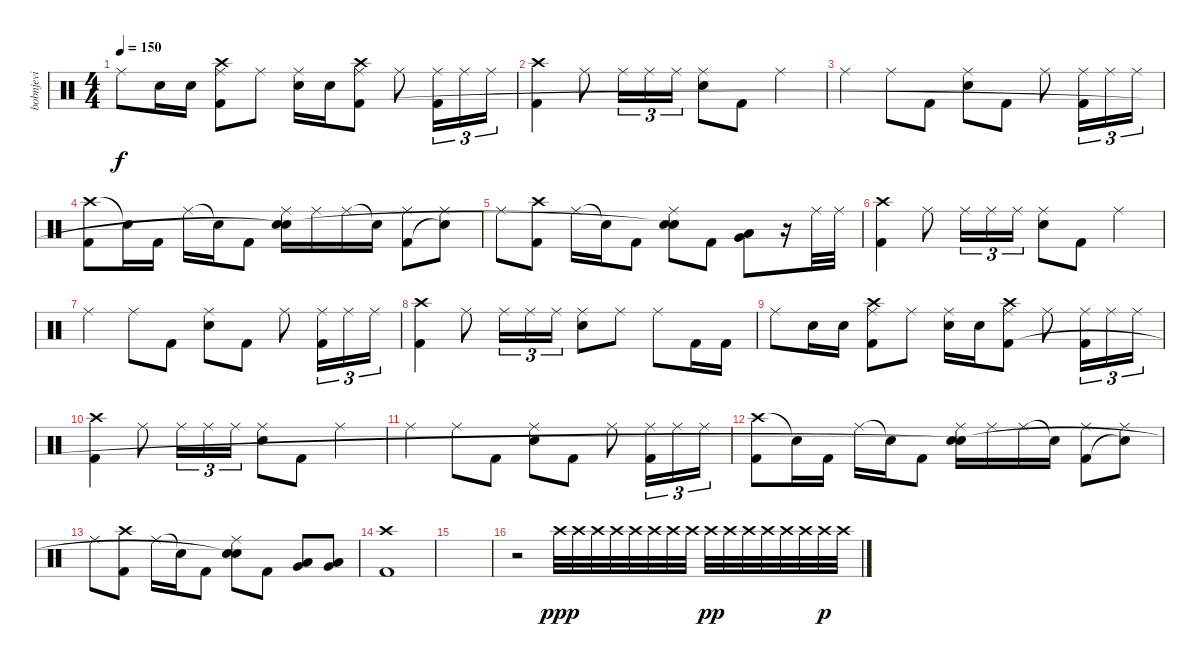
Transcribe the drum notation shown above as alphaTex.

\track ("bobnjevi" "bobnjevi") {instrument percussion}
\staff {score}
\articulation defaults
\ts (4 4)
\tempo 150
\clef neutral
\ks c "Ride (middle)".8{dy f} "Electric Snare (hit)".16 "Electric Snare (hit)".16
("Crash high (hit)" "Ride (middle)" "Kick (hit) 2").8 "Ride (middle)".8 ("Ride (middle)" "Electric Snare (hit)").16 "Electric Snare (hit)".16 ("Crash high (hit)" "Ride (middle)" "Kick (hit) 2").8 "Ride (middle)".8 ("Ride (middle)" "Kick (hit) 2").16{tu (3 2)} "Ride (middle)".16{tu (3 2)} "Ride (middle)".16{tu (3 2)} |
("Crash high (hit)" "Kick (hit) 2").4 "Ride (middle)".8 "Ride (middle)".16{tu (3 2)} "Ride (middle)".16{tu (3 2)} "Ride (middle)".16{tu (3 2)} ("Ride (middle)" "Electric Snare (hit)").8 "Kick (hit) 2".8 "Ride (middle)".4 |
"Ride (middle)".4 "Ride (middle)".8 "Kick (hit) 2".8 ("Ride (middle)" "Electric Snare (hit)").8 "Kick (hit) 2".8 "Ride (middle)".8 ("Ride (middle)" "Kick (hit) 2").16{tu (3 2)} "Ride (middle)".16{tu (3 2)} "Ride (middle)".16{tu (3 2)} |
("Crash high (hit)" "Kick (hit) 2").8 "Snare (hit)"{t}.16 "Kick (hit) 2".16 "Ride (middle)".16 "Snare (hit)"{t}.16 "Kick (hit) 2".8 ("Ride (middle)" "Electric Snare (hit)" "Snare (hit)"{t}).16 "Ride (middle)".16 "Ride (middle)".16 "Snare (hit)"{t}.16 ("Ride (middle)" "Kick (hit) 2").8 ("Ride (middle)" "Snare (hit)"{t}).8 |
"Ride (middle)".8 ("Crash high (hit)" "Kick (hit) 2").8 "Ride (middle)".16 "Snare (hit)"{t}.16 "Kick (hit) 2".8 ("Ride (middle)" "Electric Snare (hit)" "Snare (hit)"{t}).8 "Kick (hit) 2".8 ("Very Low Tom (hit)" "Low Tom (hit)").8 r.16 "Ride (middle)".32 "Ride (middle)".32 |
("Crash high (hit)" "Kick (hit) 2").4 "Ride (middle)".8 "Ride (middle)".16{tu (3 2)} "Ride (middle)".16{tu (3 2)} "Ride (middle)".16{tu (3 2)} ("Ride (middle)" "Electric Snare (hit)").8 "Kick (hit) 2".8 "Ride (middle)".4 |
"Ride (middle)".4 "Ride (middle)".8 "Kick (hit) 2".8 ("Ride (middle)" "Electric Snare (hit)").8 "Kick (hit) 2".8 "Ride (middle)".8 ("Ride (middle)" "Kick (hit) 2").16{tu (3 2)} "Ride (middle)".16{tu (3 2)} "Ride (middle)".16{tu (3 2)} |
("Crash high (hit)" "Kick (hit) 2").4 "Ride (middle)".8 "Ride (middle)".16{tu (3 2)} "Ride (middle)".16{tu (3 2)} "Ride (middle)".16{tu (3 2)} ("Ride (middle)" "Electric Snare (hit)").8 "Ride (middle)".8 "Ride (middle)".8 "Kick (hit) 2".16 "Kick (hit) 2".16 |
"Ride (middle)".8 "Electric Snare (hit)".16 "Electric Snare (hit)".16 ("Crash high (hit)" "Ride (middle)" "Kick (hit) 2").8 "Ride (middle)".8 ("Ride (middle)" "Electric Snare (hit)").16 "Electric Snare (hit)".16 ("Crash high (hit)" "Ride (middle)" "Kick (hit) 2").8 "Ride (middle)".8 ("Ride (middle)" "Kick (hit) 2").16{tu (3 2)} "Ride (middle)".16{tu (3 2)} "Ride (middle)".16{tu (3 2)} |
("Crash high (hit)" "Kick (hit) 2").4 "Ride (middle)".8 "Ride (middle)".16{tu (3 2)} "Ride (middle)".16{tu (3 2)} "Ride (middle)".16{tu (3 2)} ("Ride (middle)" "Electric Snare (hit)").8 "Kick (hit) 2".8 "Ride (middle)".4 |
"Ride (middle)".4 "Ride (middle)".8 "Kick (hit) 2".8 ("Ride (middle)" "Electric Snare (hit)").8 "Kick (hit) 2".8 "Ride (middle)".8 ("Ride (middle)" "Kick (hit) 2").16{tu (3 2)} "Ride (middle)".16{tu (3 2)} "Ride (middle)".16{tu (3 2)} |
("Crash high (hit)" "Kick (hit) 2").8 "Snare (hit)"{t}.16 "Kick (hit) 2".16 "Ride (middle)".16 "Snare (hit)"{t}.16 "Kick (hit) 2".8 ("Ride (middle)" "Electric Snare (hit)" "Snare (hit)"{t}).16 "Ride (middle)".16 "Ride (middle)".16 "Snare (hit)"{t}.16 ("Ride (middle)" "Kick (hit) 2").8 ("Ride (middle)" "Snare (hit)"{t}).8 |
"Ride (middle)".8 ("Crash high (hit)" "Kick (hit) 2").8 "Ride (middle)".16 "Snare (hit)"{t}.16 "Kick (hit) 2".8 ("Ride (middle)" "Electric Snare (hit)" "Snare (hit)"{t}).8 "Kick (hit) 2".8 ("Very Low Tom (hit)" "Low Tom (hit)").8 ("Very Low Tom (hit)" "Low Tom (hit)").8 |
("Crash high (hit)" "Kick (hit) 2").1 |
|
r.2 "Crash high (hit)".32{dy ppp} "Crash high (hit)".32 "Crash high (hit)".32 "Crash high (hit)".32 "Crash high (hit)".32 "Crash high (hit)".32 "Crash high (hit)".32 "Crash high (hit)".32 "Crash high (hit)".32{dy pp} "Crash high (hit)".32 "Crash high (hit)".32 "Crash high (hit)".32 "Crash high (hit)".32 "Crash high (hit)".32 "Crash high (hit)".32{dy p} "Crash high (hit)".32
